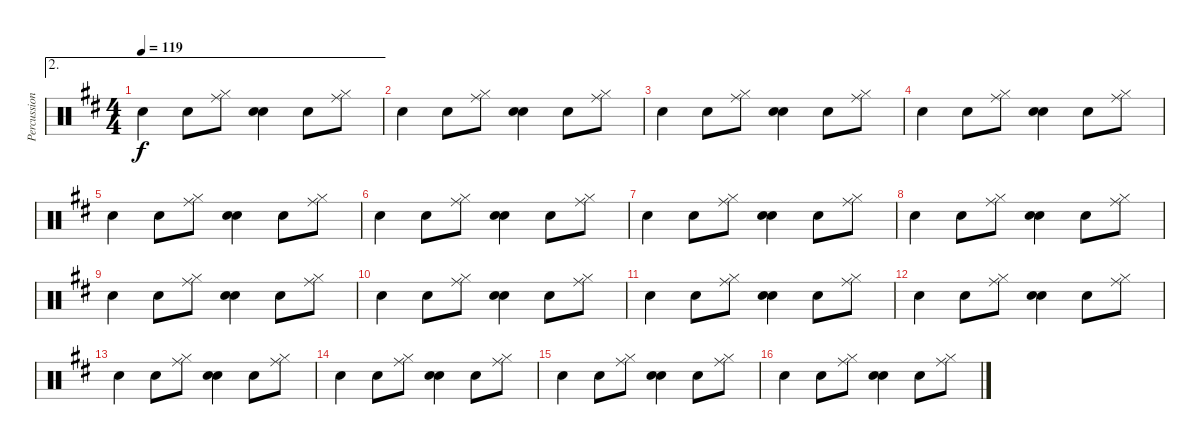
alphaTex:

\track ("Percussion" "Percussion") {instrument percussion}
\staff {score}
\articulation defaults
\ae 2
\ts (4 4)
\tempo 119
\clef neutral
\ks d "Electric Snare (hit)".4{dy f} "Electric Snare (hit)".8
("Hi-Hat (closed)" "Ride (middle)").8 ("Electric Snare (hit)" "Electric Snare (hit)").4 "Electric Snare (hit)".8 ("Ride (middle)" "Hi-Hat (closed)").8 |
"Electric Snare (hit)".4 "Electric Snare (hit)".8 ("Hi-Hat (closed)" "Ride (middle)").8 ("Electric Snare (hit)" "Electric Snare (hit)").4 "Electric Snare (hit)".8 ("Ride (middle)" "Hi-Hat (closed)").8 |
"Electric Snare (hit)".4 "Electric Snare (hit)".8 ("Hi-Hat (closed)" "Ride (middle)").8 ("Electric Snare (hit)" "Electric Snare (hit)").4 "Electric Snare (hit)".8 ("Ride (middle)" "Hi-Hat (closed)").8 |
"Electric Snare (hit)".4 "Electric Snare (hit)".8 ("Hi-Hat (closed)" "Ride (middle)").8 ("Electric Snare (hit)" "Electric Snare (hit)").4 "Electric Snare (hit)".8 ("Ride (middle)" "Hi-Hat (closed)").8 |
"Electric Snare (hit)".4 "Electric Snare (hit)".8 ("Hi-Hat (closed)" "Ride (middle)").8 ("Electric Snare (hit)" "Electric Snare (hit)").4 "Electric Snare (hit)".8 ("Ride (middle)" "Hi-Hat (closed)").8 |
"Electric Snare (hit)".4 "Electric Snare (hit)".8 ("Hi-Hat (closed)" "Ride (middle)").8 ("Electric Snare (hit)" "Electric Snare (hit)").4 "Electric Snare (hit)".8 ("Ride (middle)" "Hi-Hat (closed)").8 |
"Electric Snare (hit)".4 "Electric Snare (hit)".8 ("Hi-Hat (closed)" "Ride (middle)").8 ("Electric Snare (hit)" "Electric Snare (hit)").4 "Electric Snare (hit)".8 ("Ride (middle)" "Hi-Hat (closed)").8 |
"Electric Snare (hit)".4 "Electric Snare (hit)".8 ("Hi-Hat (closed)" "Ride (middle)").8 ("Electric Snare (hit)" "Electric Snare (hit)").4 "Electric Snare (hit)".8 ("Ride (middle)" "Hi-Hat (closed)").8 |
"Electric Snare (hit)".4 "Electric Snare (hit)".8 ("Hi-Hat (closed)" "Ride (middle)").8 ("Electric Snare (hit)" "Electric Snare (hit)").4 "Electric Snare (hit)".8 ("Ride (middle)" "Hi-Hat (closed)").8 |
"Electric Snare (hit)".4 "Electric Snare (hit)".8 ("Hi-Hat (closed)" "Ride (middle)").8 ("Electric Snare (hit)" "Electric Snare (hit)").4 "Electric Snare (hit)".8 ("Ride (middle)" "Hi-Hat (closed)").8 |
"Electric Snare (hit)".4 "Electric Snare (hit)".8 ("Hi-Hat (closed)" "Ride (middle)").8 ("Electric Snare (hit)" "Electric Snare (hit)").4 "Electric Snare (hit)".8 ("Ride (middle)" "Hi-Hat (closed)").8 |
"Electric Snare (hit)".4 "Electric Snare (hit)".8 ("Hi-Hat (closed)" "Ride (middle)").8 ("Electric Snare (hit)" "Electric Snare (hit)").4 "Electric Snare (hit)".8 ("Ride (middle)" "Hi-Hat (closed)").8 |
"Electric Snare (hit)".4 "Electric Snare (hit)".8 ("Hi-Hat (closed)" "Ride (middle)").8 ("Electric Snare (hit)" "Electric Snare (hit)").4 "Electric Snare (hit)".8 ("Ride (middle)" "Hi-Hat (closed)").8 |
"Electric Snare (hit)".4 "Electric Snare (hit)".8 ("Hi-Hat (closed)" "Ride (middle)").8 ("Electric Snare (hit)" "Electric Snare (hit)").4 "Electric Snare (hit)".8 ("Ride (middle)" "Hi-Hat (closed)").8 |
"Electric Snare (hit)".4 "Electric Snare (hit)".8 ("Hi-Hat (closed)" "Ride (middle)").8 ("Electric Snare (hit)" "Electric Snare (hit)").4 "Electric Snare (hit)".8 ("Ride (middle)" "Hi-Hat (closed)").8 |
"Electric Snare (hit)".4 "Electric Snare (hit)".8 ("Hi-Hat (closed)" "Ride (middle)").8 ("Electric Snare (hit)" "Electric Snare (hit)").4 "Electric Snare (hit)".8 ("Ride (middle)" "Hi-Hat (closed)").8
